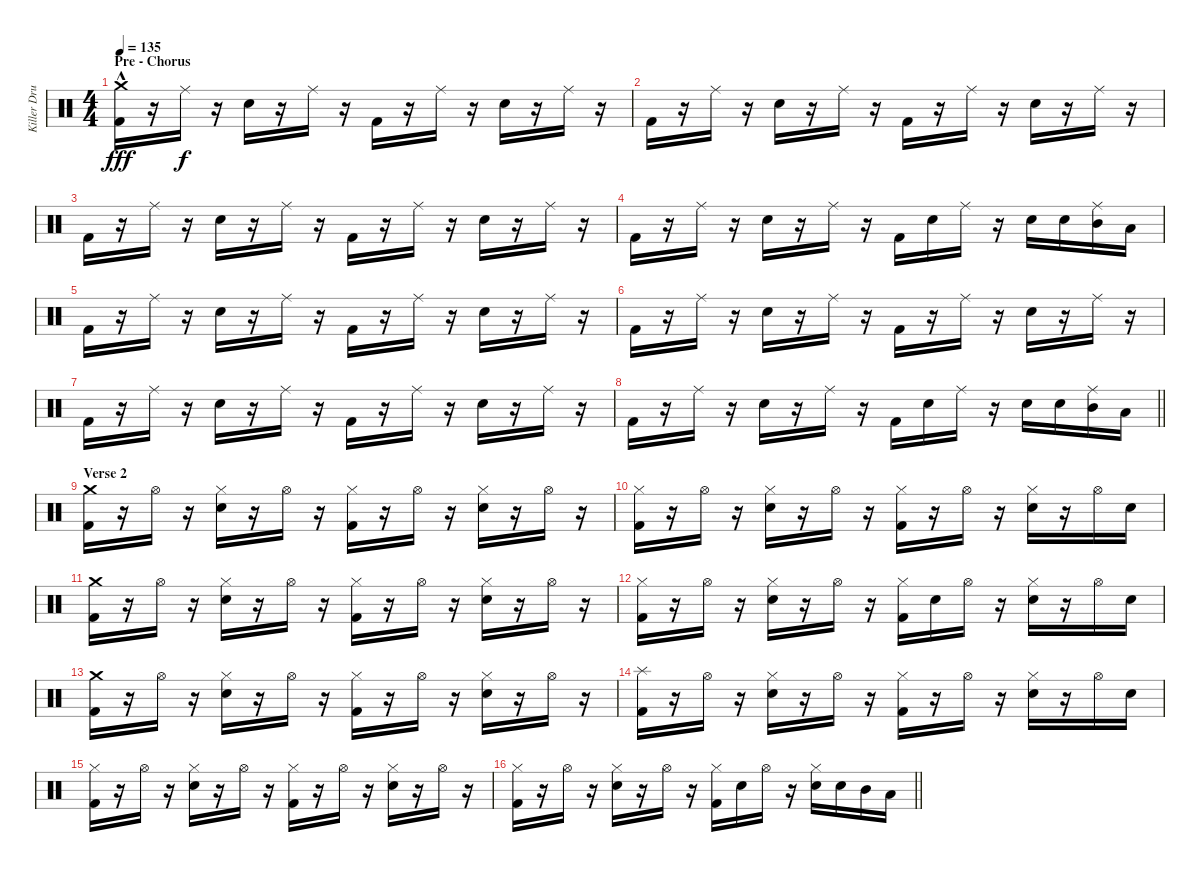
\track ("Killer Drummer" "Killer Dru") {instrument percussion}
\staff {score}
\articulation defaults
\ts (4 4)
\section ("" "Pre - Chorus")
\tempo 135
\clef neutral
\ks c
("Crash medium (hit)" "Kick (hit) 2"{hac}).16{dy fff} r.16 "Ride (middle)".16{dy f} r.16 "Electric Snare (hit)".16 r.16 "Ride (middle)".16 r.16 "Kick (hit) 2".16 r.16 "Ride (middle)".16 r.16 "Electric Snare (hit)".16 r.16 "Ride (middle)".16 r.16 |
"Kick (hit) 2".16 r.16 "Ride (middle)".16 r.16 "Electric Snare (hit)".16 r.16 "Ride (middle)".16 r.16 "Kick (hit) 2".16 r.16 "Ride (middle)".16 r.16 "Electric Snare (hit)".16 r.16 "Ride (middle)".16 r.16 |
"Kick (hit) 2".16 r.16 "Ride (middle)".16 r.16 "Electric Snare (hit)".16 r.16 "Ride (middle)".16 r.16 "Kick (hit) 2".16 r.16 "Ride (middle)".16 r.16 "Electric Snare (hit)".16 r.16 "Ride (middle)".16 r.16 |
"Kick (hit) 2".16 r.16 "Ride (middle)".16 r.16 "Electric Snare (hit)".16 r.16 "Ride (middle)".16 r.16 "Kick (hit) 2".16 "Electric Snare (hit)".16 "Ride (middle)".16 r.16 "Electric Snare (hit)".16 "Electric Snare (hit)".16 ("Ride (middle)" "Mid Tom (hit)").16 "Low Tom (hit)".16 |
"Kick (hit) 2".16 r.16 "Ride (middle)".16 r.16 "Electric Snare (hit)".16 r.16 "Ride (middle)".16 r.16 "Kick (hit) 2".16 r.16 "Ride (middle)".16 r.16 "Electric Snare (hit)".16 r.16 "Ride (middle)".16 r.16 |
"Kick (hit) 2".16 r.16 "Ride (middle)".16 r.16 "Electric Snare (hit)".16 r.16 "Ride (middle)".16 r.16 "Kick (hit) 2".16 r.16 "Ride (middle)".16 r.16 "Electric Snare (hit)".16 r.16 "Ride (middle)".16 r.16 |
"Kick (hit) 2".16 r.16 "Ride (middle)".16 r.16 "Electric Snare (hit)".16 r.16 "Ride (middle)".16 r.16 "Kick (hit) 2".16 r.16 "Ride (middle)".16 r.16 "Electric Snare (hit)".16 r.16 "Ride (middle)".16 r.16 |
\barLineRight lightlight "Kick (hit) 2".16
r.16 "Ride (middle)".16 r.16 "Electric Snare (hit)".16 r.16 "Ride (middle)".16 r.16 "Kick (hit) 2".16 "Electric Snare (hit)".16 "Ride (middle)".16 r.16 "Electric Snare (hit)".16 "Electric Snare (hit)".16 ("Ride (middle)" "Mid Tom (hit)").16 "Low Tom (hit)".16 |
\section ("" "Verse 2")
("Crash medium (hit)" "Kick (hit) 2").16 r.16 "Hi-Hat (open)".16 r.16 ("Hi-Hat (closed)" "Electric Snare (hit)").16 r.16 "Hi-Hat (open)".16 r.16 ("Hi-Hat (closed)" "Kick (hit) 2").16 r.16 "Hi-Hat (open)".16 r.16 ("Hi-Hat (closed)" "Electric Snare (hit)").16 r.16 "Hi-Hat (open)".16 r.16 |
("Hi-Hat (closed)" "Kick (hit) 2").16 r.16 "Hi-Hat (open)".16 r.16 ("Hi-Hat (closed)" "Electric Snare (hit)").16 r.16 "Hi-Hat (open)".16 r.16 ("Hi-Hat (closed)" "Kick (hit) 2").16 r.16 "Hi-Hat (open)".16 r.16 ("Hi-Hat (closed)" "Electric Snare (hit)").16 r.16 "Hi-Hat (open)".16 "Electric Snare (hit)".16 |
("Crash medium (hit)" "Kick (hit) 2").16 r.16 "Hi-Hat (open)".16 r.16 ("Hi-Hat (closed)" "Electric Snare (hit)").16 r.16 "Hi-Hat (open)".16 r.16 ("Hi-Hat (closed)" "Kick (hit) 2").16 r.16 "Hi-Hat (open)".16 r.16 ("Hi-Hat (closed)" "Electric Snare (hit)").16 r.16 "Hi-Hat (open)".16 r.16 |
("Hi-Hat (closed)" "Kick (hit) 2").16 r.16 "Hi-Hat (open)".16 r.16 ("Hi-Hat (closed)" "Electric Snare (hit)").16 r.16 "Hi-Hat (open)".16 r.16 ("Hi-Hat (closed)" "Kick (hit) 2").16 "Electric Snare (hit)".16 "Hi-Hat (open)".16 r.16 ("Hi-Hat (closed)" "Electric Snare (hit)").16 r.16 "Hi-Hat (open)".16 "Electric Snare (hit)".16 |
("Crash medium (hit)" "Kick (hit) 2").16 r.16 "Hi-Hat (open)".16 r.16 ("Hi-Hat (closed)" "Electric Snare (hit)").16 r.16 "Hi-Hat (open)".16 r.16 ("Hi-Hat (closed)" "Kick (hit) 2").16 r.16 "Hi-Hat (open)".16 r.16 ("Hi-Hat (closed)" "Electric Snare (hit)").16 r.16 "Hi-Hat (open)".16 r.16 |
("Splash (hit)" "Kick (hit) 2").16 r.16 "Hi-Hat (open)".16 r.16 ("Hi-Hat (closed)" "Electric Snare (hit)").16 r.16 "Hi-Hat (open)".16 r.16 ("Hi-Hat (closed)" "Kick (hit) 2").16 r.16 "Hi-Hat (open)".16 r.16 ("Hi-Hat (closed)" "Electric Snare (hit)").16 r.16 "Hi-Hat (open)".16 "Electric Snare (hit)".16 |
("Hi-Hat (closed)" "Kick (hit) 2").16 r.16 "Hi-Hat (open)".16 r.16 ("Hi-Hat (closed)" "Electric Snare (hit)").16 r.16 "Hi-Hat (open)".16 r.16 ("Hi-Hat (closed)" "Kick (hit) 2").16 r.16 "Hi-Hat (open)".16 r.16 ("Hi-Hat (closed)" "Electric Snare (hit)").16 r.16 "Hi-Hat (open)".16 r.16 |
\barLineRight lightlight
("Hi-Hat (closed)" "Kick (hit) 2").16 r.16 "Hi-Hat (open)".16 r.16 ("Hi-Hat (closed)" "Electric Snare (hit)").16 r.16 "Hi-Hat (open)".16 r.16 ("Hi-Hat (closed)" "Kick (hit) 2").16 "Electric Snare (hit)".16 "Hi-Hat (open)".16 r.16 ("Hi-Hat (closed)" "Electric Snare (hit)").16 "Electric Snare (hit)".16 "Mid Tom (hit)".16 "Low Tom (hit)".16
